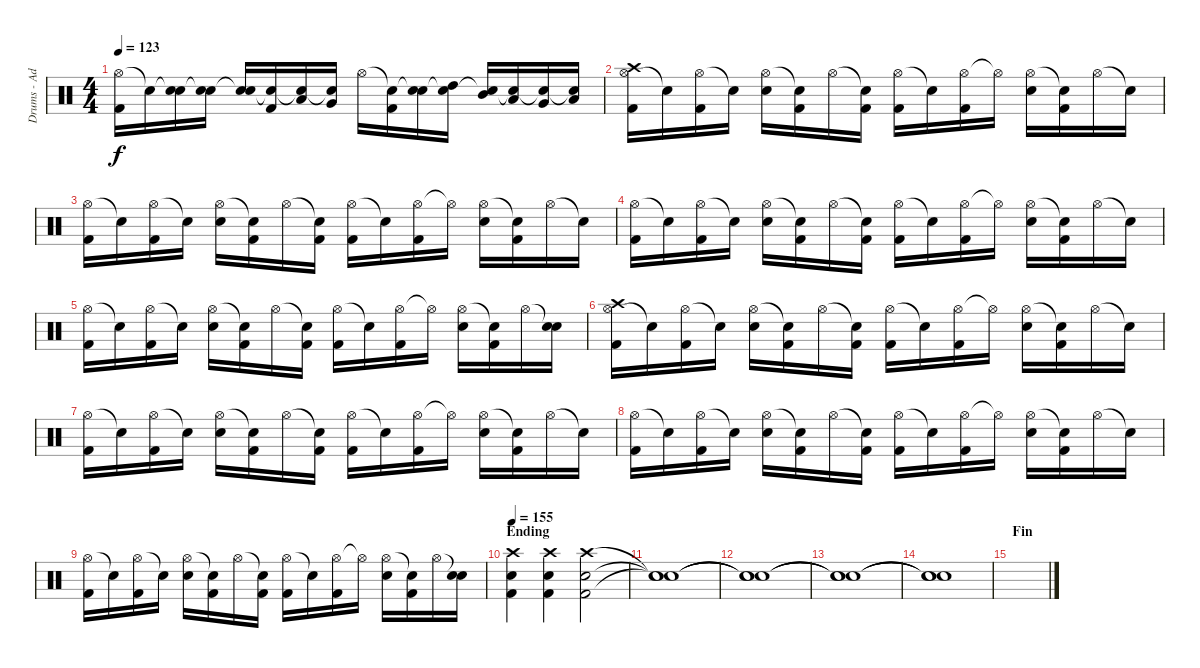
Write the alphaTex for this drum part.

\track ("Drums - Adam" "Drums - Ad") {instrument percussion}
\staff {score}
\articulation defaults
\ts (4 4)
\tempo 123
\clef neutral
\ks c
("Hi-Hat (open)" "Kick (hit) 2").16{dy f} "Snare (hit)"{t}.16 ("Snare (hit)"{t} "Electric Snare (hit)").16 ("Snare (hit)"{t} "Electric Snare (hit)").16 ("Snare (hit)"{t} "Electric Snare (hit)").16 ("Snare (hit)"{t} "Kick (hit) 2").16 ("Snare (hit)"{t} "Low Tom (hit)").16 ("Snare (hit)"{t} "Very Low Tom (hit)").16 "Hi-Hat (open)".16 ("Snare (hit)"{t} "Kick (hit) 2").16 ("Snare (hit)"{t} "Electric Snare (hit)").16 ("Snare (hit)"{t} "High Tom (hit)").16 ("Snare (hit)"{t} "Mid Tom (hit)").16 ("Snare (hit)"{t} "Low Tom (hit)").16 ("Snare (hit)"{t} "Very Low Tom (hit)").16 ("Snare (hit)"{t} "Low Floor Tom (hit)").16 |
("Hi-Hat (open)" "Kick (hit) 2" "Crash high (hit)").16 "Snare (hit)"{t}.16 ("Hi-Hat (open)" "Kick (hit) 2").16 "Snare (hit)"{t}.16 ("Hi-Hat (open)" "Electric Snare (hit)").16 ("Snare (hit)"{t} "Kick (hit) 2").16 "Hi-Hat (open)".16 ("Snare (hit)"{t} "Kick (hit) 2").16 ("Hi-Hat (open)" "Kick (hit) 2").16 "Snare (hit)"{t}.16 ("Hi-Hat (open)" "Kick (hit) 2").16 "Hi-Hat (open)"{t}.16 ("Hi-Hat (open)" "Electric Snare (hit)").16 ("Snare (hit)"{t} "Kick (hit) 2").16 "Hi-Hat (open)".16 "Snare (hit)"{t}.16 |
("Hi-Hat (open)" "Kick (hit) 2").16 "Snare (hit)"{t}.16 ("Hi-Hat (open)" "Kick (hit) 2").16 "Snare (hit)"{t}.16 ("Hi-Hat (open)" "Electric Snare (hit)").16 ("Snare (hit)"{t} "Kick (hit) 2").16 "Hi-Hat (open)".16 ("Snare (hit)"{t} "Kick (hit) 2").16 ("Hi-Hat (open)" "Kick (hit) 2").16 "Snare (hit)"{t}.16 ("Hi-Hat (open)" "Kick (hit) 2").16 "Hi-Hat (open)"{t}.16 ("Hi-Hat (open)" "Electric Snare (hit)").16 ("Snare (hit)"{t} "Kick (hit) 2").16 "Hi-Hat (open)".16 "Snare (hit)"{t}.16 |
("Hi-Hat (open)" "Kick (hit) 2").16 "Snare (hit)"{t}.16 ("Hi-Hat (open)" "Kick (hit) 2").16 "Snare (hit)"{t}.16 ("Hi-Hat (open)" "Electric Snare (hit)").16 ("Snare (hit)"{t} "Kick (hit) 2").16 "Hi-Hat (open)".16 ("Snare (hit)"{t} "Kick (hit) 2").16 ("Hi-Hat (open)" "Kick (hit) 2").16 "Snare (hit)"{t}.16 ("Hi-Hat (open)" "Kick (hit) 2").16 "Hi-Hat (open)"{t}.16 ("Hi-Hat (open)" "Electric Snare (hit)").16 ("Snare (hit)"{t} "Kick (hit) 2").16 "Hi-Hat (open)".16 "Snare (hit)"{t}.16 |
("Hi-Hat (open)" "Kick (hit) 2").16 "Snare (hit)"{t}.16 ("Hi-Hat (open)" "Kick (hit) 2").16 "Snare (hit)"{t}.16 ("Hi-Hat (open)" "Electric Snare (hit)").16 ("Snare (hit)"{t} "Kick (hit) 2").16 "Hi-Hat (open)".16 ("Snare (hit)"{t} "Kick (hit) 2").16 ("Hi-Hat (open)" "Kick (hit) 2").16 "Snare (hit)"{t}.16 ("Hi-Hat (open)" "Kick (hit) 2").16 "Hi-Hat (open)"{t}.16 ("Hi-Hat (open)" "Electric Snare (hit)").16 ("Snare (hit)"{t} "Kick (hit) 2").16 "Hi-Hat (open)".16 ("Snare (hit)"{t} "Electric Snare (hit)").16 |
("Hi-Hat (open)" "Kick (hit) 2" "Crash high (hit)").16 "Snare (hit)"{t}.16 ("Hi-Hat (open)" "Kick (hit) 2").16 "Snare (hit)"{t}.16 ("Hi-Hat (open)" "Electric Snare (hit)").16 ("Snare (hit)"{t} "Kick (hit) 2").16 "Hi-Hat (open)".16 ("Snare (hit)"{t} "Kick (hit) 2").16 ("Hi-Hat (open)" "Kick (hit) 2").16 "Snare (hit)"{t}.16 ("Hi-Hat (open)" "Kick (hit) 2").16 "Hi-Hat (open)"{t}.16 ("Hi-Hat (open)" "Electric Snare (hit)").16 ("Snare (hit)"{t} "Kick (hit) 2").16 "Hi-Hat (open)".16 "Snare (hit)"{t}.16 |
("Hi-Hat (open)" "Kick (hit) 2").16 "Snare (hit)"{t}.16 ("Hi-Hat (open)" "Kick (hit) 2").16 "Snare (hit)"{t}.16 ("Hi-Hat (open)" "Electric Snare (hit)").16 ("Snare (hit)"{t} "Kick (hit) 2").16 "Hi-Hat (open)".16 ("Snare (hit)"{t} "Kick (hit) 2").16 ("Hi-Hat (open)" "Kick (hit) 2").16 "Snare (hit)"{t}.16 ("Hi-Hat (open)" "Kick (hit) 2").16 "Hi-Hat (open)"{t}.16 ("Hi-Hat (open)" "Electric Snare (hit)").16 ("Snare (hit)"{t} "Kick (hit) 2").16 "Hi-Hat (open)".16 "Snare (hit)"{t}.16 |
("Hi-Hat (open)" "Kick (hit) 2").16 "Snare (hit)"{t}.16 ("Hi-Hat (open)" "Kick (hit) 2").16 "Snare (hit)"{t}.16 ("Hi-Hat (open)" "Electric Snare (hit)").16 ("Snare (hit)"{t} "Kick (hit) 2").16 "Hi-Hat (open)".16 ("Snare (hit)"{t} "Kick (hit) 2").16 ("Hi-Hat (open)" "Kick (hit) 2").16 "Snare (hit)"{t}.16 ("Hi-Hat (open)" "Kick (hit) 2").16 "Hi-Hat (open)"{t}.16 ("Hi-Hat (open)" "Electric Snare (hit)").16 ("Snare (hit)"{t} "Kick (hit) 2").16 "Hi-Hat (open)".16 "Snare (hit)"{t}.16 |
("Hi-Hat (open)" "Kick (hit) 2").16 "Snare (hit)"{t}.16 ("Hi-Hat (open)" "Kick (hit) 2").16 "Snare (hit)"{t}.16 ("Hi-Hat (open)" "Electric Snare (hit)").16 ("Snare (hit)"{t} "Kick (hit) 2").16 "Hi-Hat (open)".16 ("Snare (hit)"{t} "Kick (hit) 2").16 ("Hi-Hat (open)" "Kick (hit) 2").16 "Snare (hit)"{t}.16 ("Hi-Hat (open)" "Kick (hit) 2").16 "Hi-Hat (open)"{t}.16 ("Hi-Hat (open)" "Electric Snare (hit)").16 ("Snare (hit)"{t} "Kick (hit) 2").16 "Hi-Hat (open)".16 ("Snare (hit)"{t} "Electric Snare (hit)").16 |
\section ("" "Ending")
\tempo 155
("Kick (hit) 2" "Electric Snare (hit)" "Crash high (hit)").4 ("Kick (hit) 2" "Electric Snare (hit)" "Crash high (hit)").4 ("Kick (hit) 2" "Electric Snare (hit)" "Crash high (hit)").2 |
("Snare (hit)"{t} "Snare (hit)"{t} "Snare (hit)"{t}).1 |
("Snare (hit)"{t} "Snare (hit)"{t} "Snare (hit)"{t}).1 |
("Snare (hit)"{t} "Snare (hit)"{t} "Snare (hit)"{t}).1 |
("Snare (hit)"{t} "Snare (hit)"{t} "Snare (hit)"{t}).1 |
\section ("" "Fin")
